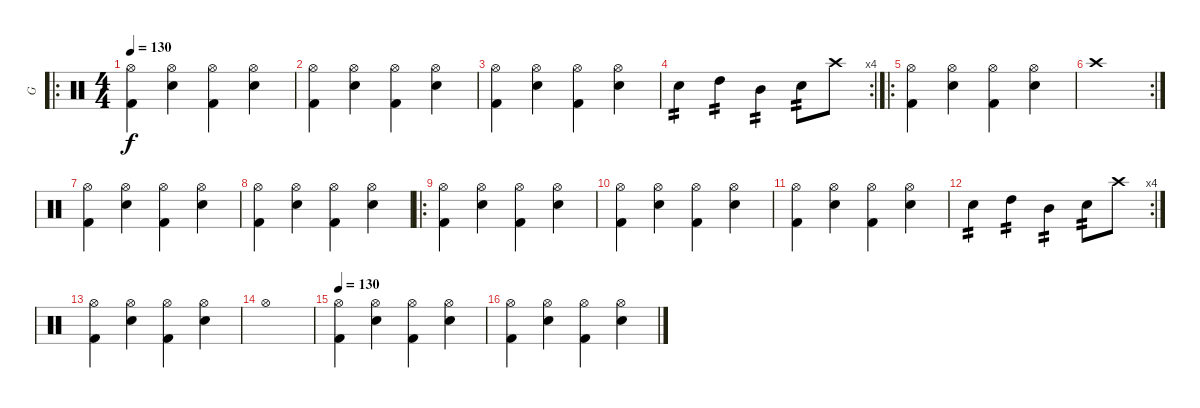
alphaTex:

\track ("G" "G") {instrument percussion}
\staff
\articulation defaults
\ro
\ts (4 4)
\tempo 130
\clef neutral
\ks c
("Hi-Hat (open)" "Kick (hit) 2").4{dy f} ("Hi-Hat (open)" "Electric Snare (hit)").4 ("Hi-Hat (open)" "Kick (hit) 2").4 ("Hi-Hat (open)" "Electric Snare (hit)").4 |
("Hi-Hat (open)" "Kick (hit) 2").4 ("Hi-Hat (open)" "Electric Snare (hit)").4 ("Hi-Hat (open)" "Kick (hit) 2").4 ("Hi-Hat (open)" "Electric Snare (hit)").4 |
("Hi-Hat (open)" "Kick (hit) 2").4 ("Hi-Hat (open)" "Electric Snare (hit)").4 ("Hi-Hat (open)" "Kick (hit) 2").4 ("Hi-Hat (open)" "Electric Snare (hit)").4 |
\rc 4 "Electric Snare (hit)".4{tp 2} "High Tom (hit)".4{tp 2} "Mid Tom (hit)".4{tp 2} "Electric Snare (hit)".8{tp 2} "Crash high (hit)".8
|
\ro
("Hi-Hat (open)" "Kick (hit) 2").4 ("Hi-Hat (open)" "Electric Snare (hit)").4 ("Hi-Hat (open)" "Kick (hit) 2").4 ("Hi-Hat (open)" "Electric Snare (hit)").4 |
\rc 2 "Crash high (hit)".1
|
("Hi-Hat (open)" "Kick (hit) 2").4 ("Hi-Hat (open)" "Electric Snare (hit)").4 ("Hi-Hat (open)" "Kick (hit) 2").4 ("Hi-Hat (open)" "Electric Snare (hit)").4 |
("Hi-Hat (open)" "Kick (hit) 2").4 ("Hi-Hat (open)" "Electric Snare (hit)").4 ("Hi-Hat (open)" "Kick (hit) 2").4 ("Hi-Hat (open)" "Electric Snare (hit)").4 |
\ro
("Hi-Hat (open)" "Kick (hit) 2").4 ("Hi-Hat (open)" "Electric Snare (hit)").4 ("Hi-Hat (open)" "Kick (hit) 2").4 ("Hi-Hat (open)" "Electric Snare (hit)").4 |
("Hi-Hat (open)" "Kick (hit) 2").4 ("Hi-Hat (open)" "Electric Snare (hit)").4 ("Hi-Hat (open)" "Kick (hit) 2").4 ("Hi-Hat (open)" "Electric Snare (hit)").4 |
("Hi-Hat (open)" "Kick (hit) 2").4 ("Hi-Hat (open)" "Electric Snare (hit)").4 ("Hi-Hat (open)" "Kick (hit) 2").4 ("Hi-Hat (open)" "Electric Snare (hit)").4 |
\rc 4 "Electric Snare (hit)".4{tp 2} "High Tom (hit)".4{tp 2} "Mid Tom (hit)".4{tp 2} "Electric Snare (hit)".8{tp 2} "Crash high (hit)".8
|
("Hi-Hat (open)" "Kick (hit) 2").4 ("Hi-Hat (open)" "Electric Snare (hit)").4 ("Hi-Hat (open)" "Kick (hit) 2").4 ("Hi-Hat (open)" "Electric Snare (hit)").4 |
"Hi-Hat (open)".1 |
\tempo 130
("Hi-Hat (open)" "Kick (hit) 2").4 ("Hi-Hat (open)" "Electric Snare (hit)").4 ("Hi-Hat (open)" "Kick (hit) 2").4 ("Hi-Hat (open)" "Electric Snare (hit)").4 |
("Hi-Hat (open)" "Kick (hit) 2").4 ("Hi-Hat (open)" "Electric Snare (hit)").4 ("Hi-Hat (open)" "Kick (hit) 2").4 ("Hi-Hat (open)" "Electric Snare (hit)").4
